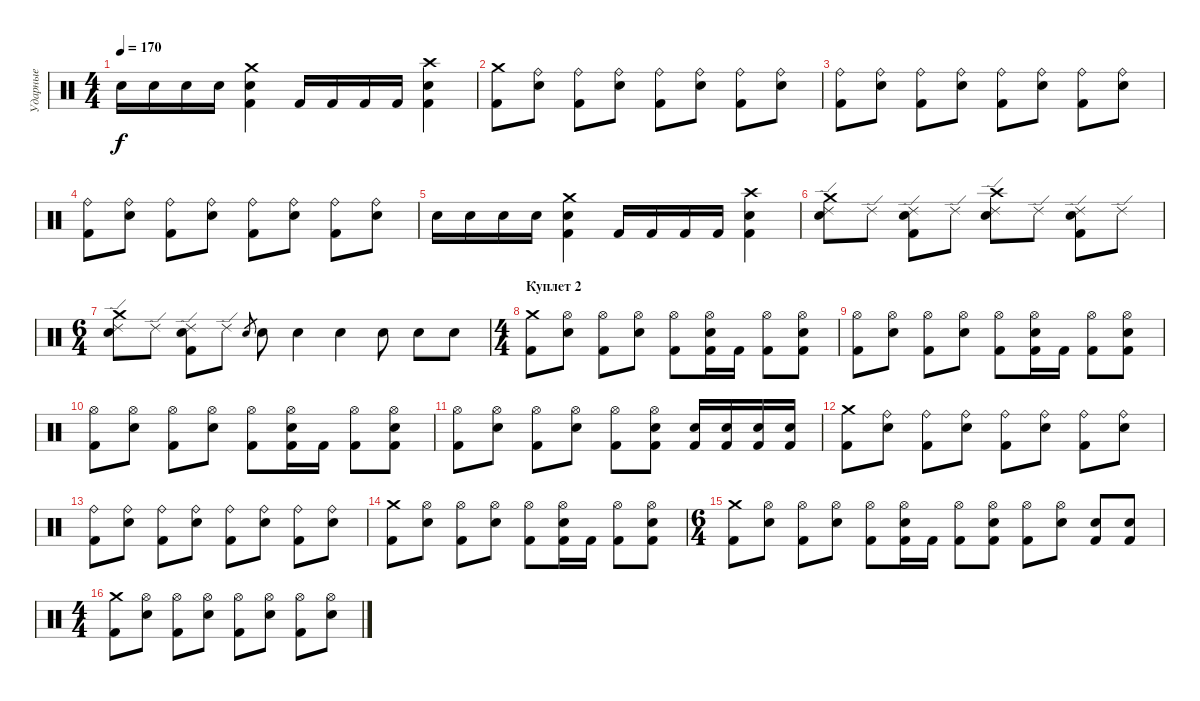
\track ("Ударные" "Ударные") {instrument percussion}
\staff {score}
\articulation defaults
\ts (4 4)
\tempo 170
\clef neutral
\ks c "Electric Snare (hit)".16{dy f} "Electric Snare (hit)".16 "Electric Snare (hit)".16 "Electric Snare (hit)".16
("Electric Snare (hit)" "Kick (hit) 2" "Crash medium (hit)").4 "Kick (hit) 2".16 "Kick (hit) 2".16 "Kick (hit) 2".16 "Kick (hit) 2".16 ("Electric Snare (hit)" "Kick (hit) 2" "Crash high (hit)").4 |
("Crash medium (hit)" "Kick (hit) 2").8 ("Ride (bell)" "Electric Snare (hit)").8 ("Ride (bell)" "Kick (hit) 2").8 ("Ride (bell)" "Electric Snare (hit)").8 ("Ride (bell)" "Kick (hit) 2").8 ("Ride (bell)" "Electric Snare (hit)").8 ("Ride (bell)" "Kick (hit) 2").8 ("Ride (bell)" "Electric Snare (hit)").8 |
("Ride (bell)" "Kick (hit) 2").8 ("Ride (bell)" "Electric Snare (hit)").8 ("Ride (bell)" "Kick (hit) 2").8 ("Ride (bell)" "Electric Snare (hit)").8 ("Ride (bell)" "Kick (hit) 2").8 ("Ride (bell)" "Electric Snare (hit)").8 ("Ride (bell)" "Kick (hit) 2").8 ("Ride (bell)" "Electric Snare (hit)").8 |
("Ride (bell)" "Kick (hit) 2").8 ("Ride (bell)" "Electric Snare (hit)").8 ("Ride (bell)" "Kick (hit) 2").8 ("Ride (bell)" "Electric Snare (hit)").8 ("Ride (bell)" "Kick (hit) 2").8 ("Ride (bell)" "Electric Snare (hit)").8 ("Ride (bell)" "Kick (hit) 2").8 ("Ride (bell)" "Electric Snare (hit)").8 |
"Electric Snare (hit)".16 "Electric Snare (hit)".16 "Electric Snare (hit)".16 "Electric Snare (hit)".16 ("Electric Snare (hit)" "Kick (hit) 2" "Crash medium (hit)").4 "Kick (hit) 2".16 "Kick (hit) 2".16 "Kick (hit) 2".16 "Kick (hit) 2".16 ("Electric Snare (hit)" "Kick (hit) 2" "Crash high (hit)").4 |
("Ride (edge) 2" "Crash medium (hit)" "Electric Snare (hit)").8 "Ride (edge) 2".8 ("Ride (edge) 2" "Kick (hit) 2" "Electric Snare (hit)").8 "Ride (edge) 2".8 ("Ride (edge) 2" "Electric Snare (hit)" "Crash high (hit)").8 "Ride (edge) 2".8 ("Ride (edge) 2" "Kick (hit) 2" "Electric Snare (hit)").8 "Ride (edge) 2".8 |
\ts (6 4)
("Ride (edge) 2" "Electric Snare (hit)" "Crash medium (hit)").8 "Ride (edge) 2".8 ("Ride (edge) 2" "Kick (hit) 2" "Electric Snare (hit)").8 "Ride (edge) 2".8 "Electric Snare (hit)".8{gr} "Electric Snare (hit)".8 "Electric Snare (hit)".4 "Electric Snare (hit)".4 "Electric Snare (hit)".8 "Electric Snare (hit)".8 "Electric Snare (hit)".8 |
\ts (4 4)
\section ("" "Куплет 2")
("Crash medium (hit)" "Kick (hit) 2").8 ("Hi-Hat (open)" "Electric Snare (hit)").8 ("Hi-Hat (open)" "Kick (hit) 2").8 ("Hi-Hat (open)" "Electric Snare (hit)").8 ("Hi-Hat (open)" "Kick (hit) 2").8 ("Hi-Hat (open)" "Kick (hit) 2" "Electric Snare (hit)").16 "Kick (hit) 2".16 ("Hi-Hat (open)" "Kick (hit) 2").8 ("Hi-Hat (open)" "Kick (hit) 2" "Electric Snare (hit)").8 |
("Hi-Hat (open)" "Kick (hit) 2").8 ("Hi-Hat (open)" "Electric Snare (hit)").8 ("Hi-Hat (open)" "Kick (hit) 2").8 ("Hi-Hat (open)" "Electric Snare (hit)").8 ("Hi-Hat (open)" "Kick (hit) 2").8 ("Hi-Hat (open)" "Kick (hit) 2" "Electric Snare (hit)").16 "Kick (hit) 2".16 ("Hi-Hat (open)" "Kick (hit) 2").8 ("Hi-Hat (open)" "Kick (hit) 2" "Electric Snare (hit)").8 |
("Hi-Hat (open)" "Kick (hit) 2").8 ("Hi-Hat (open)" "Electric Snare (hit)").8 ("Hi-Hat (open)" "Kick (hit) 2").8 ("Hi-Hat (open)" "Electric Snare (hit)").8 ("Hi-Hat (open)" "Kick (hit) 2").8 ("Hi-Hat (open)" "Kick (hit) 2" "Electric Snare (hit)").16 "Kick (hit) 2".16 ("Hi-Hat (open)" "Kick (hit) 2").8 ("Hi-Hat (open)" "Kick (hit) 2" "Electric Snare (hit)").8 |
("Hi-Hat (open)" "Kick (hit) 2").8 ("Hi-Hat (open)" "Electric Snare (hit)").8 ("Hi-Hat (open)" "Kick (hit) 2").8 ("Hi-Hat (open)" "Electric Snare (hit)").8 ("Hi-Hat (open)" "Kick (hit) 2").8 ("Hi-Hat (open)" "Kick (hit) 2" "Electric Snare (hit)").8 ("Electric Snare (hit)" "Kick (hit) 2").16 ("Electric Snare (hit)" "Kick (hit) 2").16 ("Electric Snare (hit)" "Kick (hit) 2").16 ("Electric Snare (hit)" "Kick (hit) 2").16 |
("Crash medium (hit)" "Kick (hit) 2").8 ("Ride (bell)" "Electric Snare (hit)").8 ("Ride (bell)" "Kick (hit) 2").8 ("Ride (bell)" "Electric Snare (hit)").8 ("Ride (bell)" "Kick (hit) 2").8 ("Ride (bell)" "Electric Snare (hit)").8 ("Ride (bell)" "Kick (hit) 2").8 ("Ride (bell)" "Electric Snare (hit)").8 |
("Ride (bell)" "Kick (hit) 2").8 ("Ride (bell)" "Electric Snare (hit)").8 ("Ride (bell)" "Kick (hit) 2").8 ("Ride (bell)" "Electric Snare (hit)").8 ("Ride (bell)" "Kick (hit) 2").8 ("Ride (bell)" "Electric Snare (hit)").8 ("Ride (bell)" "Kick (hit) 2").8 ("Ride (bell)" "Electric Snare (hit)").8 |
("Crash medium (hit)" "Kick (hit) 2").8 ("Hi-Hat (open)" "Electric Snare (hit)").8 ("Hi-Hat (open)" "Kick (hit) 2").8 ("Hi-Hat (open)" "Electric Snare (hit)").8 ("Hi-Hat (open)" "Kick (hit) 2").8 ("Hi-Hat (open)" "Kick (hit) 2" "Electric Snare (hit)").16 "Kick (hit) 2".16 ("Hi-Hat (open)" "Kick (hit) 2").8 ("Hi-Hat (open)" "Kick (hit) 2" "Electric Snare (hit)").8 |
\ts (6 4)
("Crash medium (hit)" "Kick (hit) 2").8 ("Hi-Hat (open)" "Electric Snare (hit)").8 ("Hi-Hat (open)" "Kick (hit) 2").8 ("Hi-Hat (open)" "Electric Snare (hit)").8 ("Hi-Hat (open)" "Kick (hit) 2").8 ("Hi-Hat (open)" "Kick (hit) 2" "Electric Snare (hit)").16 "Kick (hit) 2".16 ("Hi-Hat (open)" "Kick (hit) 2").8 ("Hi-Hat (open)" "Kick (hit) 2" "Electric Snare (hit)").8 ("Hi-Hat (open)" "Kick (hit) 2").8 ("Hi-Hat (open)" "Electric Snare (hit)").8 ("Electric Snare (hit)" "Kick (hit) 2").8 ("Electric Snare (hit)" "Kick (hit) 2").8 |
\ts (4 4)
("Crash medium (hit)" "Kick (hit) 2").8 ("Hi-Hat (open)" "Electric Snare (hit)").8 ("Hi-Hat (open)" "Kick (hit) 2").8 ("Hi-Hat (open)" "Electric Snare (hit)").8 ("Hi-Hat (open)" "Kick (hit) 2").8 ("Hi-Hat (open)" "Electric Snare (hit)").8 ("Hi-Hat (open)" "Kick (hit) 2").8 ("Hi-Hat (open)" "Electric Snare (hit)").8
